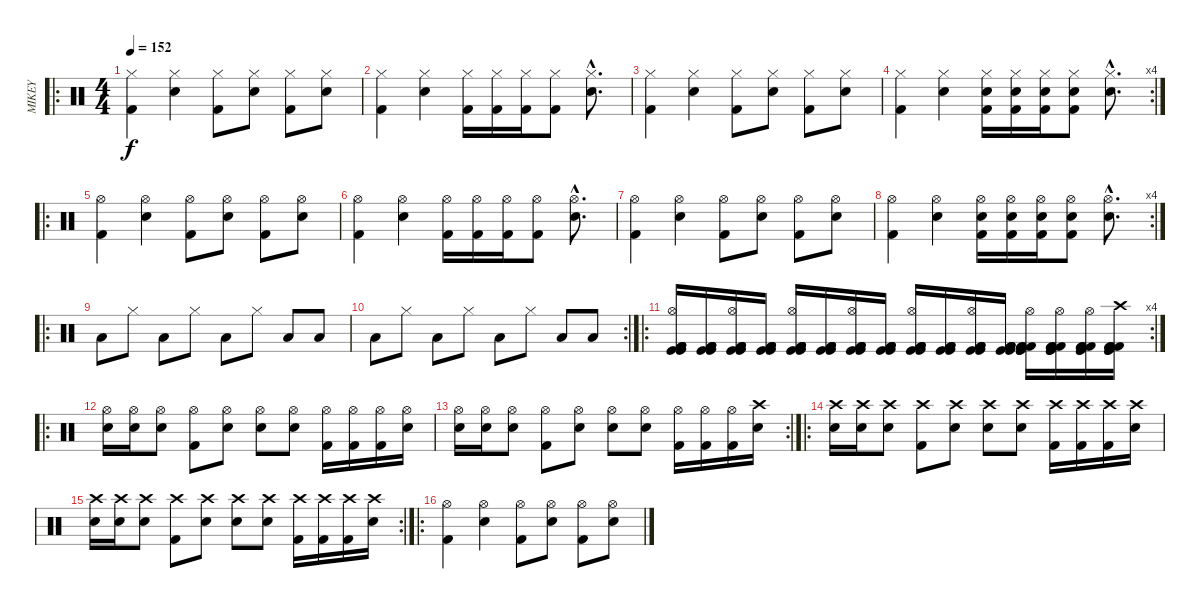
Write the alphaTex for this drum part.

\track ("MIKEY" "MIKEY") {instrument percussion}
\staff {score}
\articulation defaults
\ro
\ts (4 4)
\tempo 152
\clef neutral
\ks c
("Hi-Hat (closed)" "Kick (hit) 2").4{dy f} ("Hi-Hat (closed)" "Electric Snare (hit)").4 ("Hi-Hat (closed)" "Kick (hit) 2").8 ("Hi-Hat (closed)" "Electric Snare (hit)").8 ("Hi-Hat (closed)" "Kick (hit) 2").8 ("Hi-Hat (closed)" "Electric Snare (hit)").8 |
("Hi-Hat (closed)" "Kick (hit) 2").4 ("Hi-Hat (closed)" "Electric Snare (hit)").4 ("Hi-Hat (closed)" "Kick (hit) 2").16 ("Hi-Hat (closed)" "Kick (hit) 2").16 ("Hi-Hat (closed)" "Kick (hit) 2").16 ("Hi-Hat (closed)" "Kick (hit) 2").8 ("Hi-Hat (closed)"{hac} "Electric Snare (hit)"{hac}).8{d} |
("Hi-Hat (closed)" "Kick (hit) 2").4 ("Hi-Hat (closed)" "Electric Snare (hit)").4 ("Hi-Hat (closed)" "Kick (hit) 2").8 ("Hi-Hat (closed)" "Electric Snare (hit)").8 ("Hi-Hat (closed)" "Kick (hit) 2").8 ("Hi-Hat (closed)" "Electric Snare (hit)").8 |
\rc 4
("Hi-Hat (closed)" "Kick (hit) 2").4 ("Hi-Hat (closed)" "Electric Snare (hit)").4 ("Kick (hit) 2" "Hi-Hat (closed)" "Electric Snare (hit)").16 ("Kick (hit) 2" "Hi-Hat (closed)" "Electric Snare (hit)").16 ("Kick (hit) 2" "Hi-Hat (closed)" "Electric Snare (hit)").16 ("Kick (hit) 2" "Hi-Hat (closed)" "Electric Snare (hit)").8 ("Hi-Hat (closed)"{hac} "Electric Snare (hit)"{hac}).8{d} |
\ro
("Hi-Hat (open)" "Kick (hit) 2").4 ("Hi-Hat (open)" "Electric Snare (hit)").4 ("Hi-Hat (open)" "Kick (hit) 2").8 ("Hi-Hat (open)" "Electric Snare (hit)").8 ("Hi-Hat (open)" "Kick (hit) 2").8 ("Hi-Hat (open)" "Electric Snare (hit)").8 |
("Hi-Hat (open)" "Kick (hit) 2").4 ("Hi-Hat (open)" "Electric Snare (hit)").4 ("Hi-Hat (open)" "Kick (hit) 2").16 ("Hi-Hat (open)" "Kick (hit) 2").16 ("Hi-Hat (open)" "Kick (hit) 2").16 ("Hi-Hat (open)" "Kick (hit) 2").8 ("Hi-Hat (open)"{hac} "Electric Snare (hit)"{hac}).8{d} |
("Hi-Hat (open)" "Kick (hit) 2").4 ("Hi-Hat (open)" "Electric Snare (hit)").4 ("Hi-Hat (open)" "Kick (hit) 2").8 ("Hi-Hat (open)" "Electric Snare (hit)").8 ("Hi-Hat (open)" "Kick (hit) 2").8 ("Hi-Hat (open)" "Electric Snare (hit)").8 |
\rc 4
("Hi-Hat (open)" "Kick (hit) 2").4 ("Hi-Hat (open)" "Electric Snare (hit)").4 ("Kick (hit) 2" "Hi-Hat (open)" "Electric Snare (hit)").16 ("Kick (hit) 2" "Hi-Hat (open)" "Electric Snare (hit)").16 ("Kick (hit) 2" "Hi-Hat (open)" "Electric Snare (hit)").16 ("Kick (hit) 2" "Hi-Hat (open)" "Electric Snare (hit)").8 ("Hi-Hat (open)"{hac} "Electric Snare (hit)"{hac}).8{d} |
\ro "Low Floor Tom (hit)".8 "Hi-Hat (closed)".8 "Low Floor Tom (hit)".8 "Hi-Hat (closed)".8 "Low Floor Tom (hit)".8 "Hi-Hat (closed)".8 "Low Floor Tom (hit)".8 "Low Floor Tom (hit)".8
|
\rc 2 "Low Floor Tom (hit)".8 "Hi-Hat (closed)".8 "Low Floor Tom (hit)".8 "Hi-Hat (closed)".8 "Low Floor Tom (hit)".8 "Hi-Hat (closed)".8 "Low Floor Tom (hit)".8 "Low Floor Tom (hit)".8
|
\ro
\rc 4
("Hi-Hat (open)" "Kick (hit)" "Kick (hit)" "Kick (hit) 2" "Kick (hit) 2" "Kick (hit) 2").16 ("Kick (hit)" "Kick (hit)" "Kick (hit) 2" "Kick (hit) 2" "Kick (hit) 2").16 ("Hi-Hat (open)" "Kick (hit)" "Kick (hit)" "Kick (hit) 2" "Kick (hit) 2" "Kick (hit) 2").16 ("Kick (hit)" "Kick (hit)" "Kick (hit) 2" "Kick (hit) 2" "Kick (hit) 2").16 ("Hi-Hat (open)" "Kick (hit)" "Kick (hit)" "Kick (hit) 2" "Kick (hit) 2" "Kick (hit) 2").16 ("Kick (hit)" "Kick (hit)" "Kick (hit) 2" "Kick (hit) 2" "Kick (hit) 2").16 ("Hi-Hat (open)" "Kick (hit)" "Kick (hit)" "Kick (hit) 2" "Kick (hit) 2" "Kick (hit) 2").16 ("Kick (hit)" "Kick (hit)" "Kick (hit) 2" "Kick (hit) 2" "Kick (hit) 2").16 ("Hi-Hat (open)" "Kick (hit)" "Kick (hit)" "Kick (hit) 2" "Kick (hit) 2" "Kick (hit) 2").16 ("Kick (hit)" "Kick (hit)" "Kick (hit) 2" "Kick (hit) 2" "Kick (hit) 2").16 ("Hi-Hat (open)" "Kick (hit)" "Kick (hit)" "Kick (hit) 2" "Kick (hit) 2" "Kick (hit) 2").16 ("Kick (hit)" "Kick (hit)" "Kick (hit) 2" "Kick (hit) 2" "Kick (hit) 2").16 ("Hi-Hat (open)" "Kick (hit)" "Kick (hit)" "Kick (hit) 2" "Kick (hit) 2" "Kick (hit) 2").16 ("Hi-Hat (open)" "Kick (hit)" "Kick (hit)" "Kick (hit) 2" "Kick (hit) 2" "Kick (hit) 2").16 ("Hi-Hat (open)" "Kick (hit)" "Kick (hit)" "Kick (hit) 2" "Kick (hit) 2" "Kick (hit) 2").16 ("Crash high (hit)" "Kick (hit)" "Kick (hit)" "Kick (hit) 2" "Kick (hit) 2" "Kick (hit) 2").16 |
\ro
("Hi-Hat (open)" "Electric Snare (hit)").16 ("Hi-Hat (open)" "Electric Snare (hit)").16 ("Hi-Hat (open)" "Electric Snare (hit)").8 ("Hi-Hat (open)" "Kick (hit) 2").8 ("Hi-Hat (open)" "Electric Snare (hit)").8 ("Hi-Hat (open)" "Electric Snare (hit)").8 ("Hi-Hat (open)" "Electric Snare (hit)").8 ("Hi-Hat (open)" "Kick (hit) 2").16 ("Hi-Hat (open)" "Kick (hit) 2").16 ("Hi-Hat (open)" "Kick (hit) 2").16 ("Hi-Hat (open)" "Electric Snare (hit)").16 |
\rc 2
("Hi-Hat (open)" "Electric Snare (hit)").16 ("Hi-Hat (open)" "Electric Snare (hit)").16 ("Hi-Hat (open)" "Electric Snare (hit)").8 ("Hi-Hat (open)" "Kick (hit) 2").8 ("Hi-Hat (open)" "Electric Snare (hit)").8 ("Hi-Hat (open)" "Electric Snare (hit)").8 ("Hi-Hat (open)" "Electric Snare (hit)").8 ("Hi-Hat (open)" "Kick (hit) 2").16 ("Hi-Hat (open)" "Kick (hit) 2").16 ("Hi-Hat (open)" "Kick (hit) 2").16 ("Crash high (hit)" "Electric Snare (hit)").16 |
\ro
("Crash high (hit)" "Electric Snare (hit)").16 ("Crash high (hit)" "Electric Snare (hit)").16 ("Crash high (hit)" "Electric Snare (hit)").8 ("Crash high (hit)" "Kick (hit) 2").8 ("Crash high (hit)" "Electric Snare (hit)").8 ("Crash high (hit)" "Electric Snare (hit)").8 ("Crash high (hit)" "Electric Snare (hit)").8 ("Crash high (hit)" "Kick (hit) 2").16 ("Crash high (hit)" "Kick (hit) 2").16 ("Crash high (hit)" "Kick (hit) 2").16 ("Crash high (hit)" "Electric Snare (hit)").16 |
\rc 2
("Crash high (hit)" "Electric Snare (hit)").16 ("Crash high (hit)" "Electric Snare (hit)").16 ("Crash high (hit)" "Electric Snare (hit)").8 ("Crash high (hit)" "Kick (hit) 2").8 ("Crash high (hit)" "Electric Snare (hit)").8 ("Crash high (hit)" "Electric Snare (hit)").8 ("Crash high (hit)" "Electric Snare (hit)").8 ("Crash high (hit)" "Kick (hit) 2").16 ("Crash high (hit)" "Kick (hit) 2").16 ("Crash high (hit)" "Kick (hit) 2").16 ("Crash high (hit)" "Electric Snare (hit)").16 |
\ro
("Hi-Hat (open)" "Kick (hit) 2").4 ("Hi-Hat (open)" "Electric Snare (hit)").4 ("Hi-Hat (open)" "Kick (hit) 2").8 ("Hi-Hat (open)" "Electric Snare (hit)").8 ("Hi-Hat (open)" "Kick (hit) 2").8 ("Hi-Hat (open)" "Electric Snare (hit)").8
